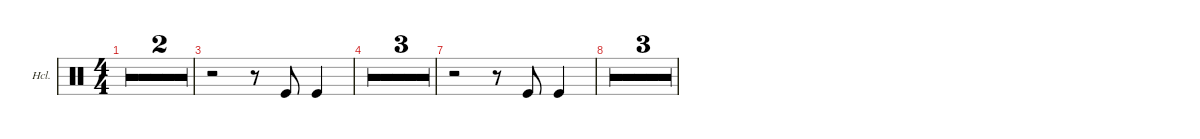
\defaultSystemsLayout 4
\hideDynamics
\bracketExtendMode groupsimilarinstruments
\firstSystemTrackNameOrientation horizontal
\otherSystemsTrackNameOrientation horizontal
\track ("Hand Clap" "Hcl.") {multiBarRest instrument percussion}
\staff {score}
\articulation defaults
\ts (4 4)
\tempo 80
\clef neutral
\ks c
r.1{dy mp} |
r.1 |
r.2 r.8 "Kick (hit)".8 "Kick (hit)".4 |
r.1 |
r.1 |
r.1 |
r.2 r.8 "Kick (hit)".8 "Kick (hit)".4 |
r.1 |
r.1 |
r.1
